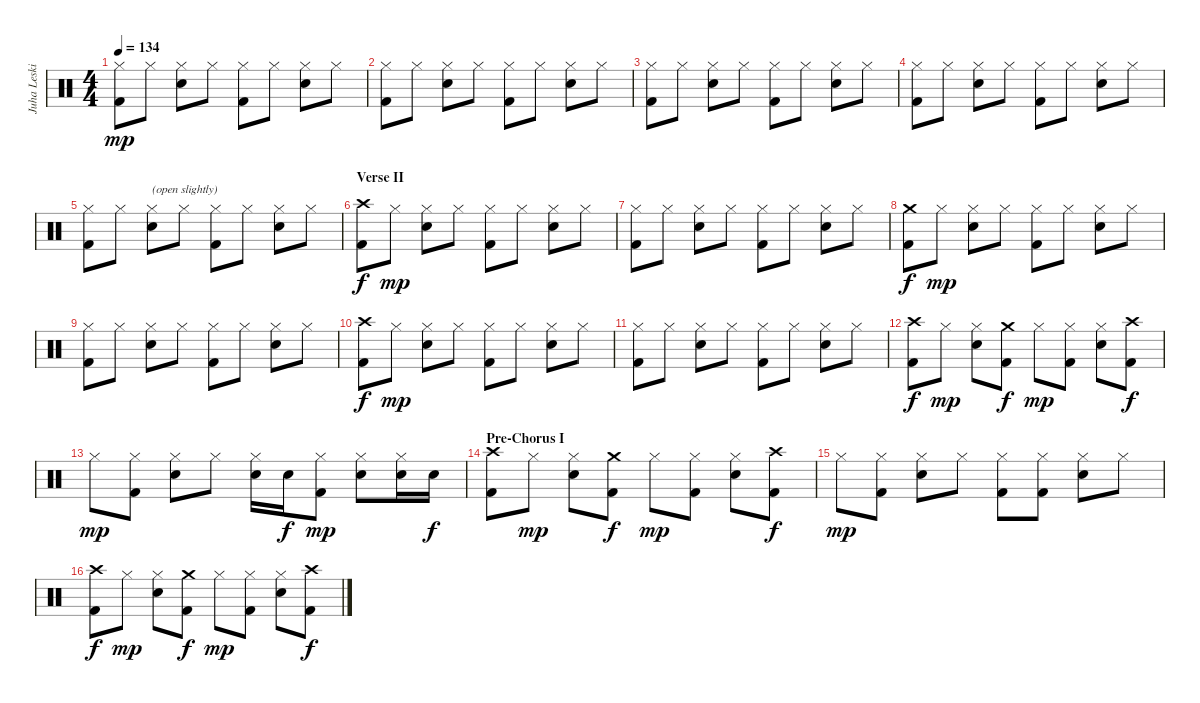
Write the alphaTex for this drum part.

\track ("Juha Leskinen - Drums" "Juha Leski") {instrument percussion}
\staff {score}
\articulation defaults
\ts (4 4)
\tempo 134
\clef neutral
\ks c
("Hi-Hat (closed)" "Kick (hit) 2").8{dy mp} "Hi-Hat (closed)".8 ("Hi-Hat (closed)" "Electric Snare (hit)").8 "Hi-Hat (closed)".8 ("Hi-Hat (closed)" "Kick (hit) 2").8 "Hi-Hat (closed)".8 ("Hi-Hat (closed)" "Electric Snare (hit)").8 "Hi-Hat (closed)".8 |
("Hi-Hat (closed)" "Kick (hit) 2").8 "Hi-Hat (closed)".8 ("Hi-Hat (closed)" "Electric Snare (hit)").8 "Hi-Hat (closed)".8 ("Hi-Hat (closed)" "Kick (hit) 2").8 "Hi-Hat (closed)".8 ("Hi-Hat (closed)" "Electric Snare (hit)").8 "Hi-Hat (closed)".8 |
("Hi-Hat (closed)" "Kick (hit) 2").8 "Hi-Hat (closed)".8 ("Hi-Hat (closed)" "Electric Snare (hit)").8 "Hi-Hat (closed)".8 ("Hi-Hat (closed)" "Kick (hit) 2").8 "Hi-Hat (closed)".8 ("Hi-Hat (closed)" "Electric Snare (hit)").8 "Hi-Hat (closed)".8 |
("Hi-Hat (closed)" "Kick (hit) 2").8 "Hi-Hat (closed)".8 ("Hi-Hat (closed)" "Electric Snare (hit)").8 "Hi-Hat (closed)".8 ("Hi-Hat (closed)" "Kick (hit) 2").8 "Hi-Hat (closed)".8 ("Hi-Hat (closed)" "Electric Snare (hit)").8 "Hi-Hat (closed)".8 |
("Hi-Hat (closed)" "Kick (hit) 2").8 "Hi-Hat (closed)".8 ("Hi-Hat (closed)" "Electric Snare (hit)").8{txt "(open slightly)"} "Hi-Hat (closed)".8 ("Hi-Hat (closed)" "Kick (hit) 2").8 "Hi-Hat (closed)".8 ("Hi-Hat (closed)" "Electric Snare (hit)").8 "Hi-Hat (closed)".8 |
\section ("" "Verse II")
("Crash high (hit)" "Kick (hit) 2").8{dy f} "Hi-Hat (closed)".8{dy mp} ("Hi-Hat (closed)" "Electric Snare (hit)").8 "Hi-Hat (closed)".8 ("Hi-Hat (closed)" "Kick (hit) 2").8 "Hi-Hat (closed)".8 ("Hi-Hat (closed)" "Electric Snare (hit)").8 "Hi-Hat (closed)".8 |
("Hi-Hat (closed)" "Kick (hit) 2").8 "Hi-Hat (closed)".8 ("Hi-Hat (closed)" "Electric Snare (hit)").8 "Hi-Hat (closed)".8 ("Hi-Hat (closed)" "Kick (hit) 2").8 "Hi-Hat (closed)".8 ("Hi-Hat (closed)" "Electric Snare (hit)").8 "Hi-Hat (closed)".8 |
("Crash medium (hit)" "Kick (hit) 2").8{dy f} "Hi-Hat (closed)".8{dy mp} ("Hi-Hat (closed)" "Electric Snare (hit)").8 "Hi-Hat (closed)".8 ("Hi-Hat (closed)" "Kick (hit) 2").8 "Hi-Hat (closed)".8 ("Hi-Hat (closed)" "Electric Snare (hit)").8 "Hi-Hat (closed)".8 |
("Hi-Hat (closed)" "Kick (hit) 2").8 "Hi-Hat (closed)".8 ("Hi-Hat (closed)" "Electric Snare (hit)").8 "Hi-Hat (closed)".8 ("Hi-Hat (closed)" "Kick (hit) 2").8 "Hi-Hat (closed)".8 ("Hi-Hat (closed)" "Electric Snare (hit)").8 "Hi-Hat (closed)".8 |
("Crash high (hit)" "Kick (hit) 2").8{dy f} "Hi-Hat (closed)".8{dy mp} ("Hi-Hat (closed)" "Electric Snare (hit)").8 "Hi-Hat (closed)".8 ("Hi-Hat (closed)" "Kick (hit) 2").8 "Hi-Hat (closed)".8 ("Hi-Hat (closed)" "Electric Snare (hit)").8 "Hi-Hat (closed)".8 |
("Hi-Hat (closed)" "Kick (hit) 2").8 "Hi-Hat (closed)".8 ("Hi-Hat (closed)" "Electric Snare (hit)").8 "Hi-Hat (closed)".8 ("Hi-Hat (closed)" "Kick (hit) 2").8 "Hi-Hat (closed)".8 ("Hi-Hat (closed)" "Electric Snare (hit)").8 "Hi-Hat (closed)".8 |
("Crash high (hit)" "Kick (hit) 2").8{dy f} "Hi-Hat (closed)".8{dy mp} ("Hi-Hat (closed)" "Electric Snare (hit)").8 ("Crash medium (hit)" "Kick (hit) 2").8{dy f} "Hi-Hat (closed)".8{dy mp} ("Hi-Hat (closed)" "Kick (hit) 2").8 ("Hi-Hat (closed)" "Electric Snare (hit)").8 ("Crash high (hit)" "Kick (hit) 2").8{dy f} |
"Hi-Hat (closed)".8{dy mp} ("Hi-Hat (closed)" "Kick (hit) 2").8 ("Hi-Hat (closed)" "Electric Snare (hit)").8 "Hi-Hat (closed)".8 ("Hi-Hat (closed)" "Electric Snare (hit)").16 "Electric Snare (hit)".16{dy f} ("Hi-Hat (closed)" "Kick (hit) 2").8{dy mp} ("Hi-Hat (closed)" "Electric Snare (hit)").8 ("Hi-Hat (closed)" "Electric Snare (hit)").16 "Electric Snare (hit)".16{dy f} |
\section ("" "Pre-Chorus I")
("Crash high (hit)" "Kick (hit) 2").8 "Hi-Hat (closed)".8{dy mp} ("Hi-Hat (closed)" "Electric Snare (hit)").8 ("Crash medium (hit)" "Kick (hit) 2").8{dy f} "Hi-Hat (closed)".8{dy mp} ("Hi-Hat (closed)" "Kick (hit) 2").8 ("Hi-Hat (closed)" "Electric Snare (hit)").8 ("Crash high (hit)" "Kick (hit) 2").8{dy f} |
"Hi-Hat (closed)".8{dy mp} ("Hi-Hat (closed)" "Kick (hit) 2").8 ("Hi-Hat (closed)" "Electric Snare (hit)").8 "Hi-Hat (closed)".8 ("Hi-Hat (closed)" "Kick (hit) 2").8 ("Hi-Hat (closed)" "Kick (hit) 2").8 ("Hi-Hat (closed)" "Electric Snare (hit)").8 "Hi-Hat (closed)".8 |
("Crash high (hit)" "Kick (hit) 2").8{dy f} "Hi-Hat (closed)".8{dy mp} ("Hi-Hat (closed)" "Electric Snare (hit)").8 ("Crash medium (hit)" "Kick (hit) 2").8{dy f} "Hi-Hat (closed)".8{dy mp} ("Hi-Hat (closed)" "Kick (hit) 2").8 ("Hi-Hat (closed)" "Electric Snare (hit)").8 ("Crash high (hit)" "Kick (hit) 2").8{dy f}
